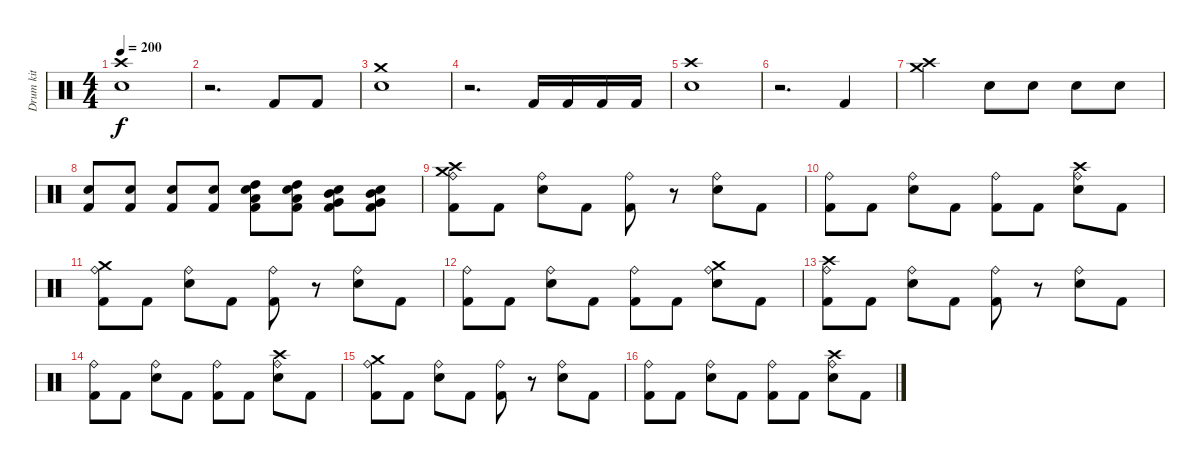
\track ("Drum kit" "Drum kit") {instrument percussion}
\staff {score}
\articulation defaults
\ts (4 4)
\tempo 200
\clef neutral
\ks c
("Crash high (hit)" "Electric Snare (hit)").1{dy f} |
r.2{d} "Kick (hit) 2".8 "Kick (hit) 2".8 |
("Crash medium (hit)" "Electric Snare (hit)").1 |
r.2{d} "Kick (hit) 2".16 "Kick (hit) 2".16 "Kick (hit) 2".16 "Kick (hit) 2".16 |
("Crash high (hit)" "Electric Snare (hit)").1 |
r.2{d} "Kick (hit) 2".4 |
("Crash medium (hit)" "Crash high (hit)").2 "Electric Snare (hit)".8 "Electric Snare (hit)".8 "Electric Snare (hit)".8 "Electric Snare (hit)".8 |
("Kick (hit) 2" "Electric Snare (hit)").8 ("Kick (hit) 2" "Electric Snare (hit)").8 ("Kick (hit) 2" "Electric Snare (hit)").8 ("Kick (hit) 2" "Electric Snare (hit)").8 ("Low Tom (hit)" "High Tom (hit)" "Kick (hit) 2" "Electric Snare (hit)").8 ("Low Tom (hit)" "High Tom (hit)" "Kick (hit) 2" "Electric Snare (hit)").8 ("Very Low Tom (hit)" "Mid Tom (hit)" "Kick (hit) 2" "Electric Snare (hit)").8 ("Very Low Tom (hit)" "Mid Tom (hit)" "Kick (hit) 2" "Electric Snare (hit)").8 |
("Crash medium (hit)" "Crash high (hit)" "Kick (hit) 2" "Ride (bell)").8 "Kick (hit) 2".8 ("Electric Snare (hit)" "Ride (bell)").8 "Kick (hit) 2".8 ("Kick (hit) 2" "Ride (bell)").8 r.8 ("Electric Snare (hit)" "Ride (bell)").8 "Kick (hit) 2".8 |
("Kick (hit) 2" "Ride (bell)").8 "Kick (hit) 2".8 ("Electric Snare (hit)" "Ride (bell)").8 "Kick (hit) 2".8 ("Kick (hit) 2" "Ride (bell)").8 "Kick (hit) 2".8 ("Crash high (hit)" "Electric Snare (hit)" "Ride (bell)").8 "Kick (hit) 2".8 |
("Crash medium (hit)" "Kick (hit) 2" "Ride (bell)").8 "Kick (hit) 2".8 ("Electric Snare (hit)" "Ride (bell)").8 "Kick (hit) 2".8 ("Kick (hit) 2" "Ride (bell)").8 r.8 ("Electric Snare (hit)" "Ride (bell)").8 "Kick (hit) 2".8 |
("Kick (hit) 2" "Ride (bell)").8 "Kick (hit) 2".8 ("Electric Snare (hit)" "Ride (bell)").8 "Kick (hit) 2".8 ("Kick (hit) 2" "Ride (bell)").8 "Kick (hit) 2".8 ("Crash medium (hit)" "Electric Snare (hit)" "Ride (bell)").8 "Kick (hit) 2".8 |
("Crash high (hit)" "Kick (hit) 2" "Ride (bell)").8 "Kick (hit) 2".8 ("Electric Snare (hit)" "Ride (bell)").8 "Kick (hit) 2".8 ("Kick (hit) 2" "Ride (bell)").8 r.8 ("Electric Snare (hit)" "Ride (bell)").8 "Kick (hit) 2".8 |
("Kick (hit) 2" "Ride (bell)").8 "Kick (hit) 2".8 ("Electric Snare (hit)" "Ride (bell)").8 "Kick (hit) 2".8 ("Kick (hit) 2" "Ride (bell)").8 "Kick (hit) 2".8 ("Crash high (hit)" "Electric Snare (hit)" "Ride (bell)").8 "Kick (hit) 2".8 |
("Crash medium (hit)" "Kick (hit) 2" "Ride (bell)").8 "Kick (hit) 2".8 ("Electric Snare (hit)" "Ride (bell)").8 "Kick (hit) 2".8 ("Kick (hit) 2" "Ride (bell)").8 r.8 ("Electric Snare (hit)" "Ride (bell)").8 "Kick (hit) 2".8 |
("Kick (hit) 2" "Ride (bell)").8 "Kick (hit) 2".8 ("Electric Snare (hit)" "Ride (bell)").8 "Kick (hit) 2".8 ("Kick (hit) 2" "Ride (bell)").8 "Kick (hit) 2".8 ("Crash high (hit)" "Electric Snare (hit)" "Ride (bell)").8 "Kick (hit) 2".8
